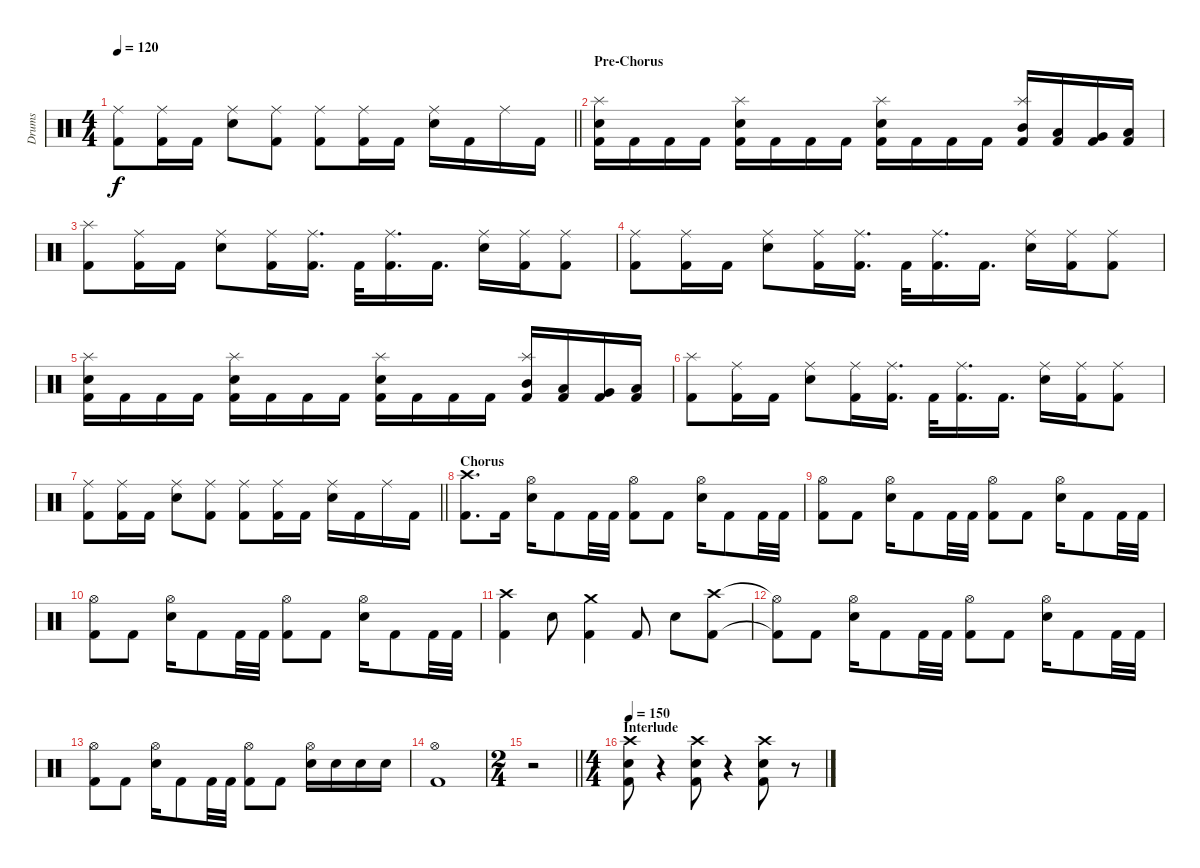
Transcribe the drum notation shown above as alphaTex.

\track ("Drums" "Drums") {instrument percussion}
\staff {score}
\articulation defaults
\ts (4 4)
\tempo 120
\clef neutral
\barLineRight lightlight
\ks c
("Ride (middle)" "Kick (hit) 2").8{dy f} ("Ride (middle)" "Kick (hit) 2").16 "Kick (hit) 2".16 ("Ride (middle)" "Snare (hit) 2").8 ("Ride (middle)" "Kick (hit) 2").8 ("Ride (middle)" "Kick (hit) 2").8 ("Ride (middle)" "Kick (hit) 2").16 "Kick (hit) 2".16 ("Ride (middle)" "Snare (hit) 2").16 "Kick (hit) 2".16 "Ride (middle)".16 "Kick (hit) 2".16 |
\section ("" "Pre-Chorus")
("Splash (hit)" "Snare (hit) 2" "Kick (hit) 2").16 "Kick (hit) 2".16 "Kick (hit) 2".16 "Kick (hit) 2".16 ("Splash (hit)" "Snare (hit) 2" "Kick (hit) 2").16 "Kick (hit) 2".16 "Kick (hit) 2".16 "Kick (hit) 2".16 ("Splash (hit)" "Snare (hit) 2" "Kick (hit) 2").16 "Kick (hit) 2".16 "Kick (hit) 2".16 "Kick (hit) 2".16 ("Splash (hit)" "Mid Tom (hit)" "Kick (hit) 2").16 ("Low Tom (hit)" "Kick (hit) 2").16 ("Very Low Tom (hit)" "Kick (hit) 2").16 ("Low Floor Tom (hit)" "Kick (hit) 2").16 |
("Splash (hit)" "Kick (hit) 2").8 ("Ride (middle)" "Kick (hit) 2").16 "Kick (hit) 2".16 ("Ride (middle)" "Snare (hit) 2").8 ("Ride (middle)" "Kick (hit) 2").16 ("Ride (middle)" "Kick (hit) 2").16{d} "Kick (hit) 2".32 ("Ride (middle)" "Kick (hit) 2").16{d} "Kick (hit) 2".16{d} ("Ride (middle)" "Snare (hit) 2").16 ("Ride (middle)" "Kick (hit) 2").16 ("Ride (middle)" "Kick (hit) 2").8 |
("Ride (middle)" "Kick (hit) 2").8 ("Ride (middle)" "Kick (hit) 2").16 "Kick (hit) 2".16 ("Ride (middle)" "Snare (hit) 2").8 ("Ride (middle)" "Kick (hit) 2").16 ("Ride (middle)" "Kick (hit) 2").16{d} "Kick (hit) 2".32 ("Ride (middle)" "Kick (hit) 2").16{d} "Kick (hit) 2".16{d} ("Ride (middle)" "Snare (hit) 2").16 ("Ride (middle)" "Kick (hit) 2").16 ("Ride (middle)" "Kick (hit) 2").8 |
("Splash (hit)" "Snare (hit) 2" "Kick (hit) 2").16 "Kick (hit) 2".16 "Kick (hit) 2".16 "Kick (hit) 2".16 ("Splash (hit)" "Snare (hit) 2" "Kick (hit) 2").16 "Kick (hit) 2".16 "Kick (hit) 2".16 "Kick (hit) 2".16 ("Splash (hit)" "Snare (hit) 2" "Kick (hit) 2").16 "Kick (hit) 2".16 "Kick (hit) 2".16 "Kick (hit) 2".16 ("Splash (hit)" "Mid Tom (hit)" "Kick (hit) 2").16 ("Low Tom (hit)" "Kick (hit) 2").16 ("Very Low Tom (hit)" "Kick (hit) 2").16 ("Low Floor Tom (hit)" "Kick (hit) 2").16 |
("Splash (hit)" "Kick (hit) 2").8 ("Ride (middle)" "Kick (hit) 2").16 "Kick (hit) 2".16 ("Ride (middle)" "Snare (hit) 2").8 ("Ride (middle)" "Kick (hit) 2").16 ("Ride (middle)" "Kick (hit) 2").16{d} "Kick (hit) 2".32 ("Ride (middle)" "Kick (hit) 2").16{d} "Kick (hit) 2".16{d} ("Ride (middle)" "Snare (hit) 2").16 ("Ride (middle)" "Kick (hit) 2").16 ("Ride (middle)" "Kick (hit) 2").8 |
\barLineRight lightlight
("Ride (middle)" "Kick (hit) 2").8 ("Ride (middle)" "Kick (hit) 2").16 "Kick (hit) 2".16 ("Ride (middle)" "Snare (hit) 2").8 ("Ride (middle)" "Kick (hit) 2").8 ("Ride (middle)" "Kick (hit) 2").8 ("Ride (middle)" "Kick (hit) 2").16 "Kick (hit) 2".16 ("Ride (middle)" "Snare (hit) 2").16 "Kick (hit) 2".16 "Ride (middle)".16 "Kick (hit) 2".16 |
\section ("" "Chorus")
("Crash high (hit)" "Kick (hit) 2").8{d} "Kick (hit) 2".16 ("Hi-Hat (open)" "Snare (hit) 2").16 "Kick (hit) 2".8 "Kick (hit) 2".32 "Kick (hit) 2".32 ("Hi-Hat (open)" "Kick (hit) 2").8 "Kick (hit) 2".8 ("Hi-Hat (open)" "Snare (hit) 2").16 "Kick (hit) 2".8 "Kick (hit) 2".32 "Kick (hit) 2".32 |
("Hi-Hat (open)" "Kick (hit) 2").8 "Kick (hit) 2".8 ("Hi-Hat (open)" "Snare (hit) 2").16 "Kick (hit) 2".8 "Kick (hit) 2".32 "Kick (hit) 2".32 ("Hi-Hat (open)" "Kick (hit) 2").8 "Kick (hit) 2".8 ("Hi-Hat (open)" "Snare (hit) 2").16 "Kick (hit) 2".8 "Kick (hit) 2".32 "Kick (hit) 2".32 |
("Hi-Hat (open)" "Kick (hit) 2").8 "Kick (hit) 2".8 ("Hi-Hat (open)" "Snare (hit) 2").16 "Kick (hit) 2".8 "Kick (hit) 2".32 "Kick (hit) 2".32 ("Hi-Hat (open)" "Kick (hit) 2").8 "Kick (hit) 2".8 ("Hi-Hat (open)" "Snare (hit) 2").16 "Kick (hit) 2".8 "Kick (hit) 2".32 "Kick (hit) 2".32 |
("Crash high (hit)" "Kick (hit) 2").4 "Snare (hit) 2".8 ("Crash medium (hit)" "Kick (hit) 2").4 "Kick (hit) 2".8 "Snare (hit) 2".8 ("Crash high (hit)" "Kick (hit) 2").8 |
("Hi-Hat (open)"{t} "Kick (hit) 2"{t}).8 "Kick (hit) 2".8 ("Hi-Hat (open)" "Snare (hit) 2").16 "Kick (hit) 2".8 "Kick (hit) 2".32 "Kick (hit) 2".32 ("Hi-Hat (open)" "Kick (hit) 2").8 "Kick (hit) 2".8 ("Hi-Hat (open)" "Snare (hit) 2").16 "Kick (hit) 2".8 "Kick (hit) 2".32 "Kick (hit) 2".32 |
("Hi-Hat (open)" "Kick (hit) 2").8 "Kick (hit) 2".8 ("Hi-Hat (open)" "Snare (hit) 2").16 "Kick (hit) 2".8 "Kick (hit) 2".32 "Kick (hit) 2".32 ("Hi-Hat (open)" "Kick (hit) 2").8 "Kick (hit) 2".8 ("Hi-Hat (open)" "Snare (hit) 2").16 "Electric Snare (hit)".16 "Electric Snare (hit)".16 "Electric Snare (hit)".16 |
("Hi-Hat (open)" "Kick (hit) 2").1 |
\ts (2 4)
\barLineRight lightlight
r.2 |
\ts (4 4)
\section ("" "Interlude")
\tempo 150
("Crash high (hit)" "Snare (hit) 2" "Kick (hit) 2").8 r.4 ("Crash high (hit)" "Snare (hit) 2" "Kick (hit) 2").8 r.4 ("Crash high (hit)" "Snare (hit) 2" "Kick (hit) 2").8 r.8
